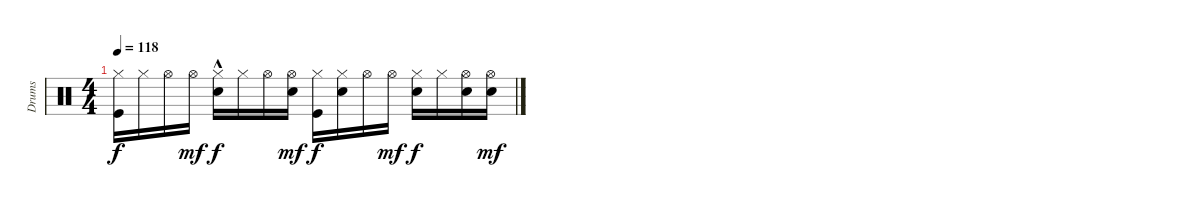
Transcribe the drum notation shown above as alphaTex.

\track ("Drums" "Drums") {instrument percussion}
\staff {score}
\articulation defaults
\ts (4 4)
\tempo 118
\clef neutral
\ks c
("Kick (hit)" "Hi-Hat (closed)").16{dy f volume 7} "Hi-Hat (closed)".16{volume 7} "Hi-Hat (open)".16{volume 7} "Hi-Hat (open)".16{dy mf volume 6} ("Electric Snare (hit)"{hac} "Hi-Hat (closed)").16{dy f volume 6} "Hi-Hat (closed)".16{volume 6} "Hi-Hat (open)".16{volume 5} ("Hi-Hat (open)" "Electric Snare (hit)").16{dy mf volume 5} ("Hi-Hat (closed)" "Kick (hit)").16{dy f volume 5} ("Electric Snare (hit)" "Hi-Hat (closed)").16{volume 4} "Hi-Hat (open)".16{volume 4} "Hi-Hat (open)".16{dy mf volume 4} ("Electric Snare (hit)" "Hi-Hat (closed)").16{dy f volume 3} "Hi-Hat (closed)".16{volume 3} ("Electric Snare (hit)" "Hi-Hat (open)").16{volume 3} ("Electric Snare (hit)" "Hi-Hat (open)").16{dy mf volume 2}
